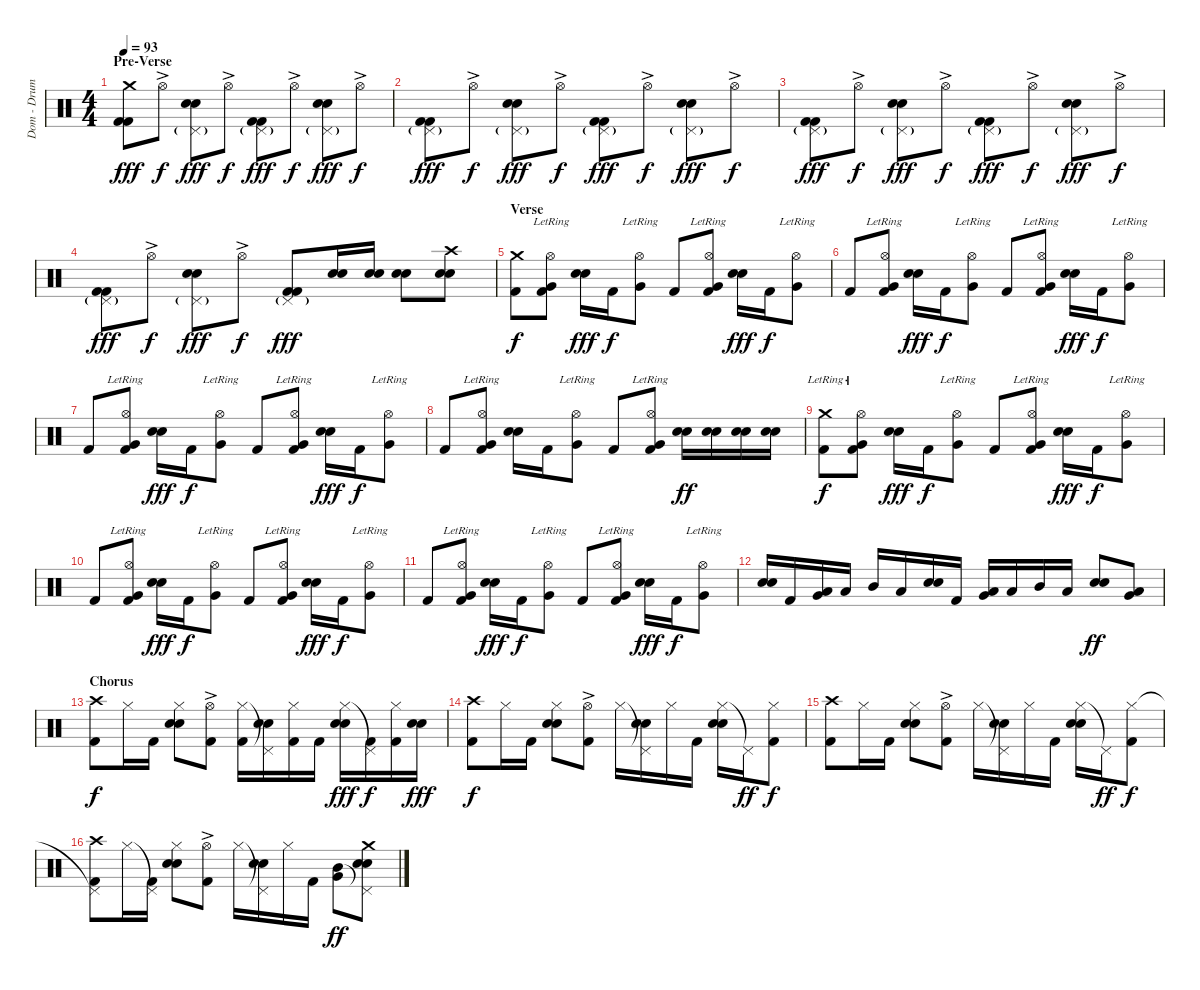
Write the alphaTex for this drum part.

\track ("Dom - Drums" "Dom - Drum") {instrument percussion}
\staff {score}
\articulation defaults
\ts (4 4)
\section ("" "Pre-Verse")
\tempo 93
\clef neutral
\ks c
("Crash medium (hit)" "Kick (hit) 2" "Kick (hit) 2").8{dy fff} "Hi-Hat (open)"{ac}.8{dy f} ("Pedal Hi-Hat (hit)"{g} "Snare (hit) 2" "Electric Snare (hit)").8{dy fff} "Hi-Hat (open)"{ac}.8{dy f} ("Pedal Hi-Hat (hit)"{g} "Kick (hit) 2" "Kick (hit) 2").8{dy fff} "Hi-Hat (open)"{ac}.8{dy f} ("Pedal Hi-Hat (hit)"{g} "Snare (hit) 2" "Electric Snare (hit)").8{dy fff} "Hi-Hat (open)"{ac}.8{dy f} |
("Pedal Hi-Hat (hit)"{g} "Kick (hit) 2" "Kick (hit) 2").8{dy fff} "Hi-Hat (open)"{ac}.8{dy f} ("Pedal Hi-Hat (hit)"{g} "Snare (hit) 2" "Electric Snare (hit)").8{dy fff} "Hi-Hat (open)"{ac}.8{dy f} ("Pedal Hi-Hat (hit)"{g} "Kick (hit) 2" "Kick (hit) 2").8{dy fff} "Hi-Hat (open)"{ac}.8{dy f} ("Pedal Hi-Hat (hit)"{g} "Snare (hit) 2" "Electric Snare (hit)").8{dy fff} "Hi-Hat (open)"{ac}.8{dy f} |
("Pedal Hi-Hat (hit)"{g} "Kick (hit) 2" "Kick (hit) 2").8{dy fff} "Hi-Hat (open)"{ac}.8{dy f} ("Pedal Hi-Hat (hit)"{g} "Snare (hit) 2" "Electric Snare (hit)").8{dy fff} "Hi-Hat (open)"{ac}.8{dy f} ("Pedal Hi-Hat (hit)"{g} "Kick (hit) 2" "Kick (hit) 2").8{dy fff} "Hi-Hat (open)"{ac}.8{dy f} ("Pedal Hi-Hat (hit)"{g} "Snare (hit) 2" "Electric Snare (hit)").8{dy fff} "Hi-Hat (open)"{ac}.8{dy f} |
("Pedal Hi-Hat (hit)"{g} "Kick (hit) 2" "Kick (hit) 2").8{dy fff} "Hi-Hat (open)"{ac}.8{dy f} ("Pedal Hi-Hat (hit)"{g} "Snare (hit) 2" "Electric Snare (hit)").8{dy fff} "Hi-Hat (open)"{ac}.8{dy f} ("Pedal Hi-Hat (hit)"{g} "Kick (hit) 2" "Kick (hit) 2").8{dy fff} ("Electric Snare (hit)" "Snare (hit) 2").16 ("Electric Snare (hit)" "Snare (hit) 2").16 ("Electric Snare (hit)" "Snare (hit) 2").8 ("Crash high (hit)" "Electric Snare (hit)" "Snare (hit) 2").8 |
\section ("" "Verse")
("Crash medium (hit)" "Kick (hit) 2").8{dy f} ("Hi-Hat (open)"{lr} "Very Low Tom (hit)" "Kick (hit) 2").8 ("Snare (hit) 2" "Electric Snare (hit)").16{dy fff} "Kick (hit) 2".16{dy f} ("Hi-Hat (open)"{lr} "Very Low Tom (hit)").8 "Kick (hit) 2".8 ("Hi-Hat (open)"{lr} "Very Low Tom (hit)" "Kick (hit) 2").8 ("Electric Snare (hit)" "Snare (hit) 2").16{dy fff} "Kick (hit) 2".16{dy f} ("Hi-Hat (open)"{lr} "Very Low Tom (hit)").8 |
"Kick (hit) 2".8 ("Hi-Hat (open)"{lr} "Very Low Tom (hit)" "Kick (hit) 2").8 ("Electric Snare (hit)" "Snare (hit) 2").16{dy fff} "Kick (hit) 2".16{dy f} ("Hi-Hat (open)"{lr} "Very Low Tom (hit)").8 "Kick (hit) 2".8 ("Hi-Hat (open)"{lr} "Very Low Tom (hit)" "Kick (hit) 2").8 ("Snare (hit) 2" "Electric Snare (hit)").16{dy fff} "Kick (hit) 2".16{dy f} ("Hi-Hat (open)"{lr} "Very Low Tom (hit)").8 |
"Kick (hit) 2".8 ("Hi-Hat (open)"{lr} "Very Low Tom (hit)" "Kick (hit) 2").8 ("Electric Snare (hit)" "Snare (hit) 2").16{dy fff} "Kick (hit) 2".16{dy f} ("Hi-Hat (open)"{lr} "Very Low Tom (hit)").8 "Kick (hit) 2".8 ("Hi-Hat (open)"{lr} "Very Low Tom (hit)" "Kick (hit) 2").8 ("Snare (hit) 2" "Electric Snare (hit)").16{dy fff} "Kick (hit) 2".16{dy f} ("Hi-Hat (open)"{lr} "Very Low Tom (hit)").8 |
"Kick (hit) 2".8 ("Hi-Hat (open)"{lr} "Very Low Tom (hit)" "Kick (hit) 2").8 ("Electric Snare (hit)" "Snare (hit) 2").16 "Kick (hit) 2".16 ("Hi-Hat (open)"{lr} "Very Low Tom (hit)").8 "Kick (hit) 2".8 ("Hi-Hat (open)"{lr} "Very Low Tom (hit)" "Kick (hit) 2").8 ("Electric Snare (hit)" "Snare (hit) 2").16{dy ff} ("Electric Snare (hit)" "Snare (hit) 2").16 ("Electric Snare (hit)" "Snare (hit) 2").16 ("Electric Snare (hit)" "Snare (hit) 2").16 |
("Crash medium (hit)"{lr} "Kick (hit) 2").8{dy f} ("Hi-Hat (open)"{lr} "Very Low Tom (hit)" "Kick (hit) 2").8 ("Snare (hit) 2" "Electric Snare (hit)").16{dy fff} "Kick (hit) 2".16{dy f} ("Hi-Hat (open)"{lr} "Very Low Tom (hit)").8 "Kick (hit) 2".8 ("Hi-Hat (open)"{lr} "Very Low Tom (hit)" "Kick (hit) 2").8 ("Electric Snare (hit)" "Snare (hit) 2").16{dy fff} "Kick (hit) 2".16{dy f} ("Hi-Hat (open)"{lr} "Very Low Tom (hit)").8 |
"Kick (hit) 2".8 ("Hi-Hat (open)"{lr} "Very Low Tom (hit)" "Kick (hit) 2").8 ("Electric Snare (hit)" "Snare (hit) 2").16{dy fff} "Kick (hit) 2".16{dy f} ("Hi-Hat (open)"{lr} "Very Low Tom (hit)").8 "Kick (hit) 2".8 ("Hi-Hat (open)"{lr} "Very Low Tom (hit)" "Kick (hit) 2").8 ("Snare (hit) 2" "Electric Snare (hit)").16{dy fff} "Kick (hit) 2".16{dy f} ("Hi-Hat (open)"{lr} "Very Low Tom (hit)").8 |
"Kick (hit) 2".8 ("Hi-Hat (open)"{lr} "Very Low Tom (hit)" "Kick (hit) 2").8 ("Electric Snare (hit)" "Snare (hit) 2").16{dy fff} "Kick (hit) 2".16{dy f} ("Hi-Hat (open)"{lr} "Very Low Tom (hit)").8 "Kick (hit) 2".8 ("Hi-Hat (open)"{lr} "Very Low Tom (hit)" "Kick (hit) 2").8 ("Snare (hit) 2" "Electric Snare (hit)").16{dy fff} "Kick (hit) 2".16{dy f} ("Hi-Hat (open)"{lr} "Very Low Tom (hit)").8 |
("Snare (hit) 2" "Snare (hit) 2").16 "Kick (hit) 2".16 ("Very Low Tom (hit)" "Low Floor Tom (hit)").16 "Low Tom (hit)".16 "Mid Tom (hit)".16 "Low Tom (hit)".16 ("Snare (hit) 2" "Snare (hit) 2").16 "Kick (hit) 2".16 ("Very Low Tom (hit)" "Low Floor Tom (hit)").16 "Low Tom (hit)".16 "Mid Tom (hit)".16 "Low Tom (hit)".16 ("Snare (hit) 2" "Snare (hit) 2").8{bd 240 dy ff} ("Very Low Tom (hit)" "Low Tom (hit)").8{bd 240} |
\section ("" "Chorus")
("Crash high (hit)" "Kick (hit) 2").8{dy f} "Hi-Hat (closed)".16 "Kick (hit) 2".16 ("Hi-Hat (closed)" "Snare (hit) 2" "Electric Snare (hit)").8 ("Hi-Hat (open)"{ac} "Kick (hit) 2").8 ("Hi-Hat (closed)" "Kick (hit) 2").16 ("Pedal Hi-Hat (hit)"{t} "Snare (hit) 2" "Electric Snare (hit)").16 ("Hi-Hat (closed)" "Kick (hit) 2").16 "Kick (hit) 2".16 ("Hi-Hat (closed)" "Snare (hit) 2" "Electric Snare (hit)").16{dy fff} ("Pedal Hi-Hat (hit)"{t} "Kick (hit) 2").16{dy f} ("Hi-Hat (closed)" "Kick (hit) 2").16 ("Snare (hit) 2" "Electric Snare (hit)").16{dy fff} |
("Crash high (hit)" "Kick (hit) 2").8{dy f} "Hi-Hat (closed)".16 "Kick (hit) 2".16 ("Hi-Hat (closed)" "Snare (hit) 2" "Electric Snare (hit)").8 ("Hi-Hat (open)"{ac} "Kick (hit) 2").8 "Hi-Hat (closed)".16 ("Pedal Hi-Hat (hit)"{t} "Snare (hit) 2" "Electric Snare (hit)").16 "Hi-Hat (closed)".16 "Kick (hit) 2".16 ("Hi-Hat (closed)" "Snare (hit) 2" "Electric Snare (hit)").16 "Pedal Hi-Hat (hit)"{t}.16{dy ff} ("Hi-Hat (closed)" "Kick (hit) 2").8{dy f} |
("Crash high (hit)" "Kick (hit) 2").8 "Hi-Hat (closed)".16 "Kick (hit) 2".16 ("Hi-Hat (closed)" "Snare (hit) 2" "Electric Snare (hit)").8 ("Hi-Hat (open)"{ac} "Kick (hit) 2").8 "Hi-Hat (closed)".16 ("Pedal Hi-Hat (hit)"{t} "Snare (hit) 2" "Electric Snare (hit)").16 "Hi-Hat (closed)".16 "Kick (hit) 2".16 ("Hi-Hat (closed)" "Snare (hit) 2" "Electric Snare (hit)").16 "Pedal Hi-Hat (hit)"{t}.16{dy ff} ("Hi-Hat (closed)" "Kick (hit) 2").8{dy f} |
("Pedal Hi-Hat (hit)"{t} "Crash high (hit)" "Kick (hit) 2").8 "Hi-Hat (closed)".16 ("Pedal Hi-Hat (hit)"{t} "Kick (hit) 2").16 ("Hi-Hat (closed)" "Snare (hit) 2" "Electric Snare (hit)").8 ("Hi-Hat (open)"{ac} "Kick (hit) 2").8 "Hi-Hat (closed)".16 ("Pedal Hi-Hat (hit)"{t} "Snare (hit) 2" "Electric Snare (hit)").16 "Hi-Hat (closed)".16 "Kick (hit) 2".16 ("Mid Tom (hit)" "Very Low Tom (hit)").8{bd 240 dy ff} ("Pedal Hi-Hat (hit)"{t} "Crash medium (hit)" "Electric Snare (hit)" "Snare (hit) 2").8{bd 240}
